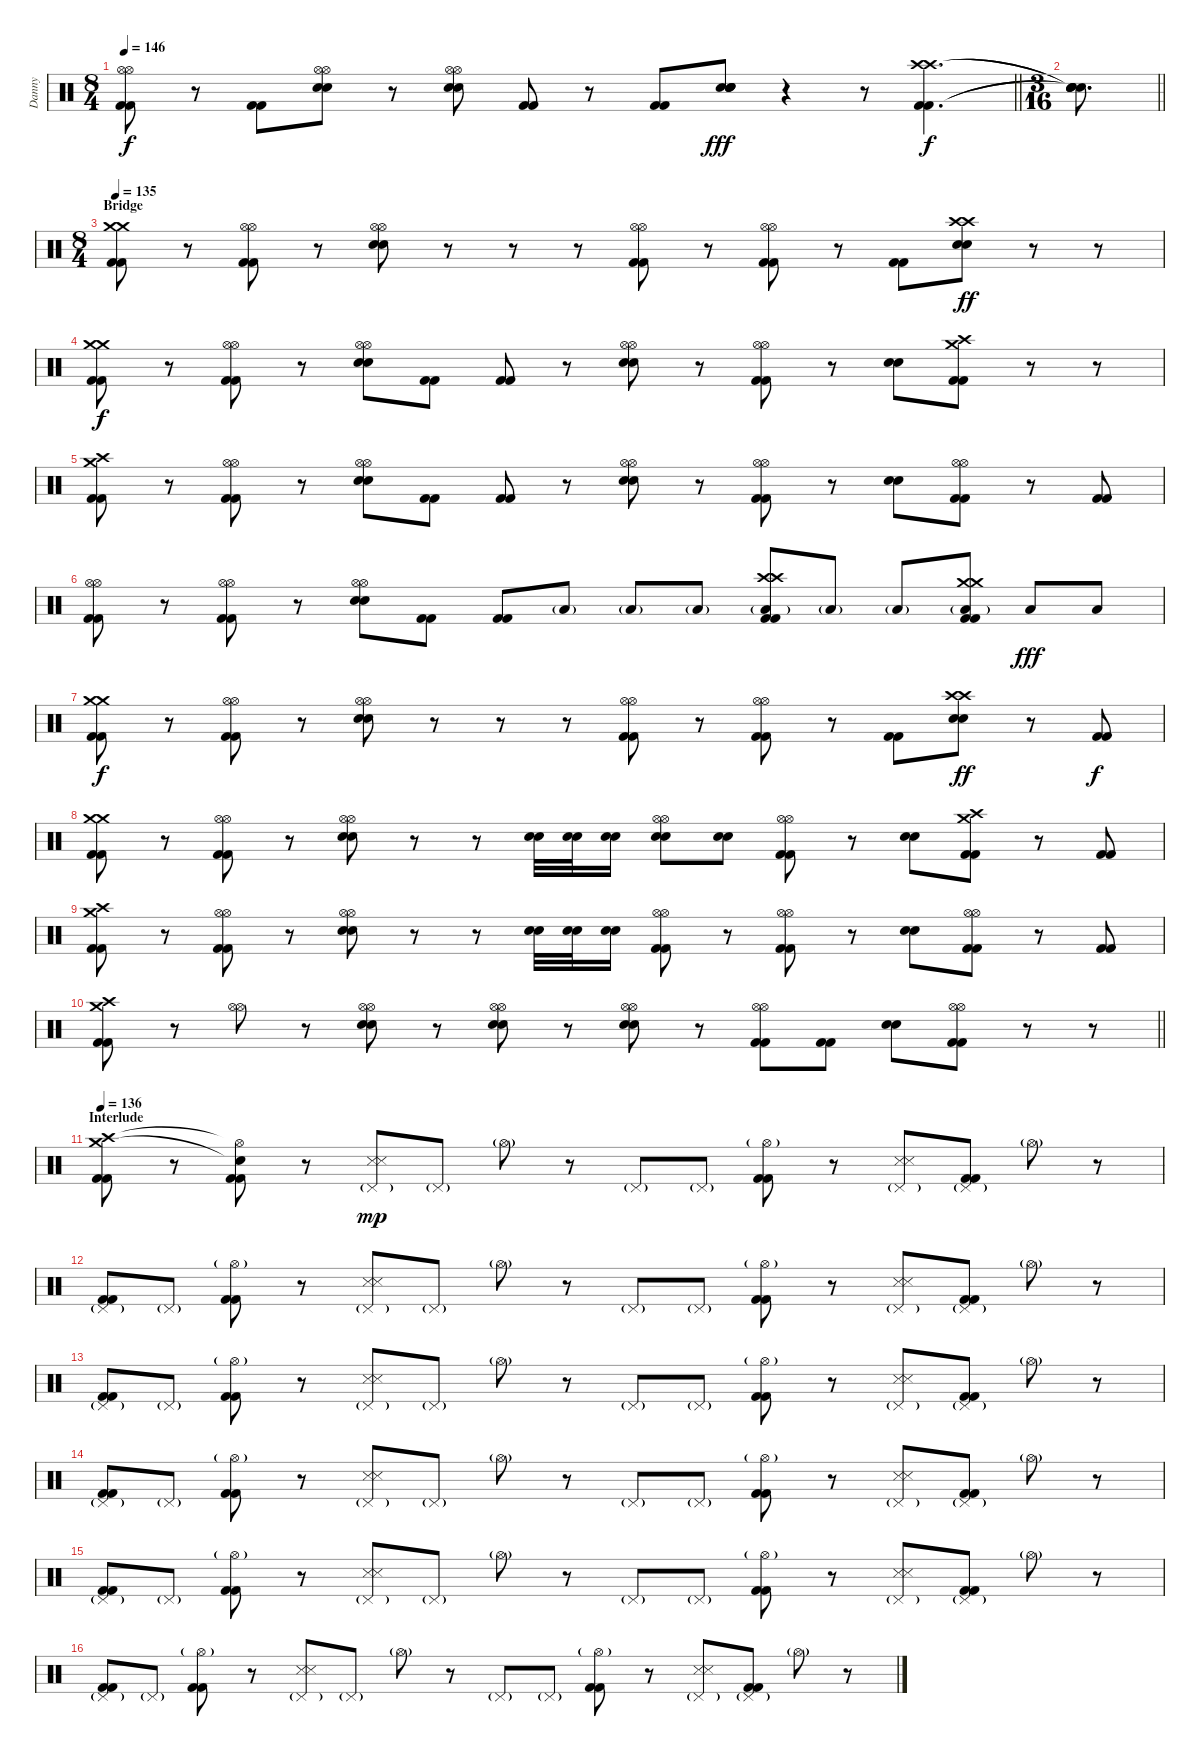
\track ("Danny" "Danny") {instrument percussion}
\staff {score}
\articulation defaults
\ts (8 4)
\tempo 146
\clef neutral
\barLineRight lightlight
\ks c
("Hi-Hat (open)" "Kick (hit) 2" "Kick (hit) 2" "Hi-Hat (open)").8{dy f} r.8 ("Kick (hit) 2" "Kick (hit) 2").8 ("Hi-Hat (open)" "Snare (hit) 2" "Snare (hit) 2" "Hi-Hat (open)").8 r.8 ("Hi-Hat (open)" "Snare (hit) 2" "Snare (hit) 2" "Hi-Hat (open)").8 ("Kick (hit) 2" "Kick (hit) 2").8 r.8 ("Kick (hit) 2" "Kick (hit) 2").8 ("Snare (hit) 2" "Snare (hit) 2" "Snare (hit) 2" "Snare (hit) 2").8{dy fff} r.4 r.8 ("Crash high (hit)" "Kick (hit) 2" "Kick (hit) 2" "Crash high (hit)").4{d dy f} |
\ts (3 16)
\barLineRight lightlight
("Snare (hit)"{t} "Snare (hit)"{t} "Snare (hit)"{t} "Snare (hit)"{t}).8{d} |
\ts (8 4)
\section ("" "Bridge")
\tempo 135
("Crash medium (hit)" "Kick (hit) 2" "Kick (hit) 2" "Crash medium (hit)").8 r.8 ("Hi-Hat (open)" "Kick (hit) 2" "Kick (hit) 2" "Hi-Hat (open)").8 r.8 ("Hi-Hat (open)" "Snare (hit) 2" "Snare (hit) 2" "Hi-Hat (open)").8 r.8 r.8 r.8 ("Hi-Hat (open)" "Kick (hit) 2" "Kick (hit) 2" "Hi-Hat (open)").8 r.8 ("Hi-Hat (open)" "Kick (hit) 2" "Kick (hit) 2" "Hi-Hat (open)").8 r.8 ("Kick (hit) 2" "Kick (hit) 2").8 ("Crash high (hit)" "Snare (hit) 2" "Snare (hit) 2" "Crash high (hit)").8{dy ff} r.8 r.8 |
("Crash medium (hit)" "Kick (hit) 2" "Kick (hit) 2" "Crash medium (hit)").8{dy f} r.8 ("Hi-Hat (open)" "Kick (hit) 2" "Kick (hit) 2" "Hi-Hat (open)").8 r.8 ("Hi-Hat (open)" "Snare (hit) 2" "Snare (hit) 2" "Hi-Hat (open)").8 ("Kick (hit) 2" "Kick (hit) 2").8 ("Kick (hit) 2" "Kick (hit) 2").8 r.8 ("Hi-Hat (open)" "Snare (hit) 2" "Snare (hit) 2" "Hi-Hat (open)").8 r.8 ("Hi-Hat (open)" "Kick (hit) 2" "Kick (hit) 2" "Hi-Hat (open)").8 r.8 ("Snare (hit) 2" "Snare (hit) 2").8 ("Crash medium (hit)" "Kick (hit) 2" "Kick (hit) 2" "Crash high (hit)").8 r.8 r.8 |
("Crash medium (hit)" "Kick (hit) 2" "Kick (hit) 2" "Crash high (hit)").8 r.8 ("Hi-Hat (open)" "Kick (hit) 2" "Kick (hit) 2" "Hi-Hat (open)").8 r.8 ("Hi-Hat (open)" "Snare (hit) 2" "Snare (hit) 2" "Hi-Hat (open)").8 ("Kick (hit) 2" "Kick (hit) 2").8 ("Kick (hit) 2" "Kick (hit) 2").8 r.8 ("Hi-Hat (open)" "Snare (hit) 2" "Snare (hit) 2" "Hi-Hat (open)").8 r.8 ("Hi-Hat (open)" "Kick (hit) 2" "Kick (hit) 2" "Hi-Hat (open)").8 r.8 ("Snare (hit) 2" "Snare (hit) 2").8 ("Hi-Hat (open)" "Kick (hit) 2" "Kick (hit) 2" "Hi-Hat (open)").8 r.8 ("Kick (hit) 2" "Kick (hit) 2").8 |
("Hi-Hat (open)" "Kick (hit) 2" "Kick (hit) 2" "Hi-Hat (open)").8 r.8 ("Hi-Hat (open)" "Kick (hit) 2" "Kick (hit) 2" "Hi-Hat (open)").8 r.8 ("Hi-Hat (open)" "Snare (hit) 2" "Snare (hit) 2" "Hi-Hat (open)").8 ("Kick (hit) 2" "Kick (hit) 2").8 ("Kick (hit) 2" "Kick (hit) 2").8 "Low Tom (hit)"{g}.8 "Low Tom (hit)"{g}.8 "Low Tom (hit)"{g}.8 ("Crash high (hit)" "Kick (hit) 2" "Kick (hit) 2" "Crash high (hit)" "Low Tom (hit)"{g}).8 "Low Tom (hit)"{g}.8 "Low Tom (hit)"{g}.8 ("Crash medium (hit)" "Kick (hit) 2" "Kick (hit) 2" "Crash medium (hit)" "Low Tom (hit)"{g}).8 "Low Tom (hit)".8{dy fff} "Low Tom (hit)".8 |
("Crash medium (hit)" "Kick (hit) 2" "Kick (hit) 2" "Crash medium (hit)").8{dy f} r.8 ("Hi-Hat (open)" "Kick (hit) 2" "Kick (hit) 2" "Hi-Hat (open)").8 r.8 ("Hi-Hat (open)" "Snare (hit) 2" "Snare (hit) 2" "Hi-Hat (open)").8 r.8 r.8 r.8 ("Hi-Hat (open)" "Kick (hit) 2" "Kick (hit) 2" "Hi-Hat (open)").8 r.8 ("Hi-Hat (open)" "Kick (hit) 2" "Kick (hit) 2" "Hi-Hat (open)").8 r.8 ("Kick (hit) 2" "Kick (hit) 2").8 ("Crash high (hit)" "Snare (hit) 2" "Snare (hit) 2" "Crash high (hit)").8{dy ff} r.8 ("Kick (hit) 2" "Kick (hit) 2").8{dy f} |
("Crash medium (hit)" "Kick (hit) 2" "Kick (hit) 2" "Crash medium (hit)").8 r.8 ("Hi-Hat (open)" "Kick (hit) 2" "Kick (hit) 2" "Hi-Hat (open)").8 r.8 ("Hi-Hat (open)" "Snare (hit) 2" "Snare (hit) 2" "Hi-Hat (open)").8 r.8 r.8 ("Snare (hit) 2" "Snare (hit) 2").32 ("Snare (hit) 2" "Snare (hit) 2").32 ("Snare (hit) 2" "Snare (hit) 2").16 ("Hi-Hat (open)" "Snare (hit) 2" "Snare (hit) 2" "Hi-Hat (open)").8 ("Snare (hit) 2" "Snare (hit) 2").8 ("Hi-Hat (open)" "Kick (hit) 2" "Kick (hit) 2" "Hi-Hat (open)").8 r.8 ("Snare (hit) 2" "Snare (hit) 2").8 ("Crash medium (hit)" "Kick (hit) 2" "Kick (hit) 2" "Crash high (hit)").8 r.8 ("Kick (hit) 2" "Kick (hit) 2").8 |
("Crash medium (hit)" "Kick (hit) 2" "Kick (hit) 2" "Crash high (hit)").8 r.8 ("Hi-Hat (open)" "Kick (hit) 2" "Kick (hit) 2" "Hi-Hat (open)").8 r.8 ("Hi-Hat (open)" "Snare (hit) 2" "Snare (hit) 2" "Hi-Hat (open)").8 r.8 r.8 ("Snare (hit) 2" "Snare (hit) 2").32 ("Snare (hit) 2" "Snare (hit) 2").32 ("Snare (hit) 2" "Snare (hit) 2").16 ("Hi-Hat (open)" "Kick (hit) 2" "Kick (hit) 2" "Hi-Hat (open)").8 r.8 ("Hi-Hat (open)" "Kick (hit) 2" "Kick (hit) 2" "Hi-Hat (open)").8 r.8 ("Snare (hit) 2" "Snare (hit) 2").8 ("Hi-Hat (open)" "Kick (hit) 2" "Kick (hit) 2" "Hi-Hat (open)").8 r.8 ("Kick (hit) 2" "Kick (hit) 2").8 |
\barLineRight lightlight
("Crash medium (hit)" "Kick (hit) 2" "Kick (hit) 2" "Crash high (hit)").8 r.8 ("Hi-Hat (open)" "Hi-Hat (open)").8 r.8 ("Hi-Hat (open)" "Snare (hit) 2" "Snare (hit) 2" "Hi-Hat (open)").8 r.8 ("Hi-Hat (open)" "Snare (hit) 2" "Snare (hit) 2" "Hi-Hat (open)").8 r.8 ("Hi-Hat (open)" "Snare (hit) 2" "Snare (hit) 2" "Hi-Hat (open)").8 r.8 ("Hi-Hat (open)" "Kick (hit) 2" "Kick (hit) 2" "Hi-Hat (open)").8 ("Kick (hit) 2" "Kick (hit) 2").8 ("Snare (hit) 2" "Snare (hit) 2").8 ("Hi-Hat (open)" "Kick (hit) 2" "Kick (hit) 2" "Hi-Hat (open)").8 r.8 r.8 |
\section ("" "Interlude")
\tempo 145
\tempo 136
("Crash high (hit)" "Kick (hit) 2" "Kick (hit) 2" "Crash medium (hit)").8 r.8 ("Hi-Hat (open)"{t} "Kick (hit) 2" "Kick (hit) 2" "Snare (hit)"{t}).8 r.8 ("Pedal Hi-Hat (hit)"{g} "Snare (side stick) 3" "Snare (side stick) 3").8{dy mp} "Pedal Hi-Hat (hit)"{g}.8 "Hi-Hat (open)"{g}.8 r.8 "Pedal Hi-Hat (hit)"{g}.8 "Pedal Hi-Hat (hit)"{g}.8 ("Hi-Hat (open)"{g} "Kick (hit) 2" "Kick (hit) 2").8 r.8 ("Pedal Hi-Hat (hit)"{g} "Snare (side stick) 3" "Snare (side stick) 3").8 ("Pedal Hi-Hat (hit)"{g} "Kick (hit) 2" "Kick (hit) 2").8 "Hi-Hat (open)"{g}.8 r.8 |
("Pedal Hi-Hat (hit)"{g} "Kick (hit) 2" "Kick (hit) 2").8 "Pedal Hi-Hat (hit)"{g}.8 ("Hi-Hat (open)"{g} "Kick (hit) 2" "Kick (hit) 2").8 r.8 ("Pedal Hi-Hat (hit)"{g} "Snare (side stick) 3" "Snare (side stick) 3").8 "Pedal Hi-Hat (hit)"{g}.8 "Hi-Hat (open)"{g}.8 r.8 "Pedal Hi-Hat (hit)"{g}.8 "Pedal Hi-Hat (hit)"{g}.8 ("Hi-Hat (open)"{g} "Kick (hit) 2" "Kick (hit) 2").8 r.8 ("Pedal Hi-Hat (hit)"{g} "Snare (side stick) 3" "Snare (side stick) 3").8 ("Pedal Hi-Hat (hit)"{g} "Kick (hit) 2" "Kick (hit) 2").8 "Hi-Hat (open)"{g}.8 r.8 |
("Pedal Hi-Hat (hit)"{g} "Kick (hit) 2" "Kick (hit) 2").8 "Pedal Hi-Hat (hit)"{g}.8 ("Hi-Hat (open)"{g} "Kick (hit) 2" "Kick (hit) 2").8 r.8 ("Pedal Hi-Hat (hit)"{g} "Snare (side stick) 3" "Snare (side stick) 3").8 "Pedal Hi-Hat (hit)"{g}.8 "Hi-Hat (open)"{g}.8 r.8 "Pedal Hi-Hat (hit)"{g}.8 "Pedal Hi-Hat (hit)"{g}.8 ("Hi-Hat (open)"{g} "Kick (hit) 2" "Kick (hit) 2").8 r.8 ("Pedal Hi-Hat (hit)"{g} "Snare (side stick) 3" "Snare (side stick) 3").8 ("Pedal Hi-Hat (hit)"{g} "Kick (hit) 2" "Kick (hit) 2").8 "Hi-Hat (open)"{g}.8 r.8 |
("Pedal Hi-Hat (hit)"{g} "Kick (hit) 2" "Kick (hit) 2").8 "Pedal Hi-Hat (hit)"{g}.8 ("Hi-Hat (open)"{g} "Kick (hit) 2" "Kick (hit) 2").8 r.8 ("Pedal Hi-Hat (hit)"{g} "Snare (side stick) 3" "Snare (side stick) 3").8 "Pedal Hi-Hat (hit)"{g}.8 "Hi-Hat (open)"{g}.8 r.8 "Pedal Hi-Hat (hit)"{g}.8 "Pedal Hi-Hat (hit)"{g}.8 ("Hi-Hat (open)"{g} "Kick (hit) 2" "Kick (hit) 2").8 r.8 ("Pedal Hi-Hat (hit)"{g} "Snare (side stick) 3" "Snare (side stick) 3").8 ("Pedal Hi-Hat (hit)"{g} "Kick (hit) 2" "Kick (hit) 2").8 "Hi-Hat (open)"{g}.8 r.8 |
("Pedal Hi-Hat (hit)"{g} "Kick (hit) 2" "Kick (hit) 2").8 "Pedal Hi-Hat (hit)"{g}.8 ("Hi-Hat (open)"{g} "Kick (hit) 2" "Kick (hit) 2").8 r.8 ("Pedal Hi-Hat (hit)"{g} "Snare (side stick) 3" "Snare (side stick) 3").8 "Pedal Hi-Hat (hit)"{g}.8 "Hi-Hat (open)"{g}.8 r.8 "Pedal Hi-Hat (hit)"{g}.8 "Pedal Hi-Hat (hit)"{g}.8 ("Hi-Hat (open)"{g} "Kick (hit) 2" "Kick (hit) 2").8 r.8 ("Pedal Hi-Hat (hit)"{g} "Snare (side stick) 3" "Snare (side stick) 3").8 ("Pedal Hi-Hat (hit)"{g} "Kick (hit) 2" "Kick (hit) 2").8 "Hi-Hat (open)"{g}.8 r.8 |
("Pedal Hi-Hat (hit)"{g} "Kick (hit) 2" "Kick (hit) 2").8 "Pedal Hi-Hat (hit)"{g}.8 ("Hi-Hat (open)"{g} "Kick (hit) 2" "Kick (hit) 2").8 r.8 ("Pedal Hi-Hat (hit)"{g} "Snare (side stick) 3" "Snare (side stick) 3").8 "Pedal Hi-Hat (hit)"{g}.8 "Hi-Hat (open)"{g}.8 r.8 "Pedal Hi-Hat (hit)"{g}.8 "Pedal Hi-Hat (hit)"{g}.8 ("Hi-Hat (open)"{g} "Kick (hit) 2" "Kick (hit) 2").8 r.8 ("Pedal Hi-Hat (hit)"{g} "Snare (side stick) 3" "Snare (side stick) 3").8 ("Pedal Hi-Hat (hit)"{g} "Kick (hit) 2" "Kick (hit) 2").8 "Hi-Hat (open)"{g}.8 r.8
